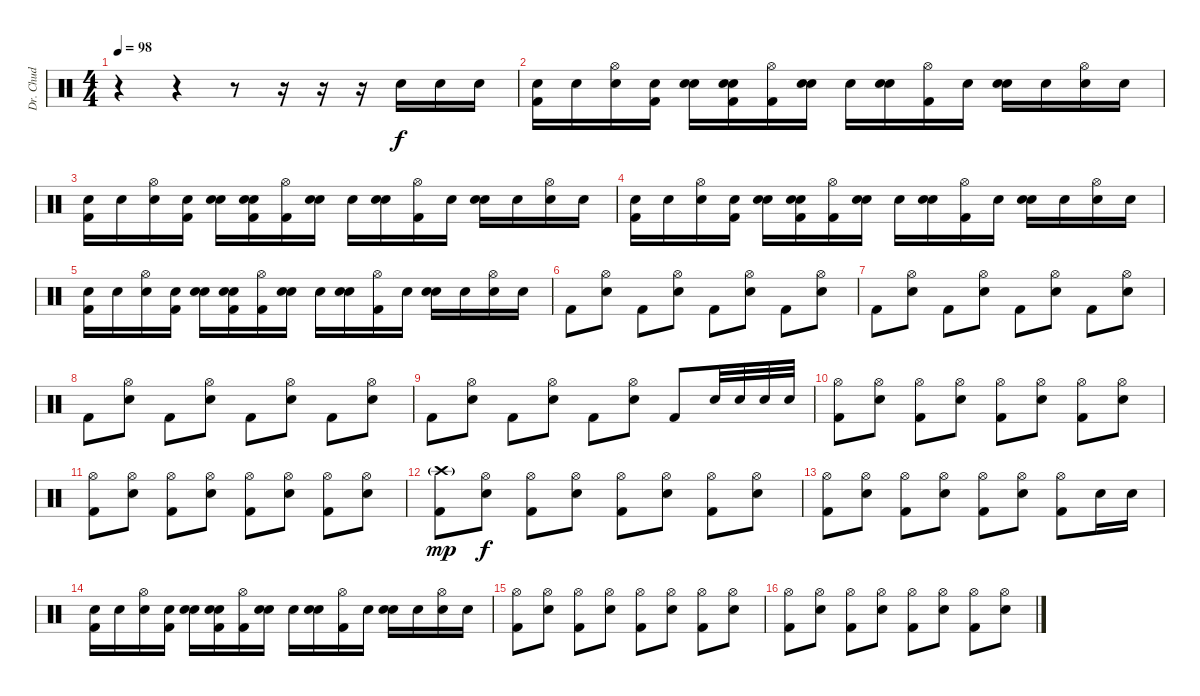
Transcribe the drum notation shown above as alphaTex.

\track ("Dr. Chud" "Dr. Chud") {instrument percussion}
\staff {score}
\articulation defaults
\ts (4 4)
\tempo 98
\clef neutral
\ks c
r.4{dy f} r.4 r.8 r.16 r.16 r.16 "Snare (hit) 2".16 "Snare (hit) 2".16 "Snare (hit) 2".16 |
("Snare (hit)" "Kick (hit) 2").16 "Snare (hit)".16 ("Hi-Hat (open)" "Snare (hit) 2").16 ("Snare (hit)" "Kick (hit) 2").16 ("Snare (hit)" "Snare (hit) 2").16 ("Snare (hit)" "Snare (hit) 2" "Kick (hit) 2").16 ("Hi-Hat (open)" "Kick (hit) 2").16 ("Snare (hit)" "Snare (hit) 2").16 "Snare (hit)".16 ("Snare (hit)" "Snare (hit) 2").16 ("Hi-Hat (open)" "Kick (hit) 2").16 "Snare (hit)".16 ("Snare (hit)" "Snare (hit) 2").16 "Snare (hit)".16 ("Hi-Hat (open)" "Snare (hit) 2").16 "Snare (hit)".16 |
("Snare (hit)" "Kick (hit) 2").16 "Snare (hit)".16 ("Hi-Hat (open)" "Snare (hit) 2").16 ("Snare (hit)" "Kick (hit) 2").16 ("Snare (hit)" "Snare (hit) 2").16 ("Snare (hit)" "Snare (hit) 2" "Kick (hit) 2").16 ("Hi-Hat (open)" "Kick (hit) 2").16 ("Snare (hit)" "Snare (hit) 2").16 "Snare (hit)".16 ("Snare (hit)" "Snare (hit) 2").16 ("Hi-Hat (open)" "Kick (hit) 2").16 "Snare (hit)".16 ("Snare (hit)" "Snare (hit) 2").16 "Snare (hit)".16 ("Hi-Hat (open)" "Snare (hit) 2").16 "Snare (hit)".16 |
("Snare (hit)" "Kick (hit) 2").16 "Snare (hit)".16 ("Hi-Hat (open)" "Snare (hit) 2").16 ("Snare (hit)" "Kick (hit) 2").16 ("Snare (hit)" "Snare (hit) 2").16 ("Snare (hit)" "Snare (hit) 2" "Kick (hit) 2").16 ("Hi-Hat (open)" "Kick (hit) 2").16 ("Snare (hit)" "Snare (hit) 2").16 "Snare (hit)".16 ("Snare (hit)" "Snare (hit) 2").16 ("Hi-Hat (open)" "Kick (hit) 2").16 "Snare (hit)".16 ("Snare (hit)" "Snare (hit) 2").16 "Snare (hit)".16 ("Hi-Hat (open)" "Snare (hit) 2").16 "Snare (hit)".16 |
("Snare (hit)" "Kick (hit) 2").16 "Snare (hit)".16 ("Hi-Hat (open)" "Snare (hit) 2").16 ("Snare (hit)" "Kick (hit) 2").16 ("Snare (hit)" "Snare (hit) 2").16 ("Snare (hit)" "Snare (hit) 2" "Kick (hit) 2").16 ("Hi-Hat (open)" "Kick (hit) 2").16 ("Snare (hit)" "Snare (hit) 2").16 "Snare (hit)".16 ("Snare (hit)" "Snare (hit) 2").16 ("Hi-Hat (open)" "Kick (hit) 2").16 "Snare (hit)".16 ("Snare (hit)" "Snare (hit) 2").16 "Snare (hit)".16 ("Hi-Hat (open)" "Snare (hit) 2").16 "Snare (hit)".16 |
"Kick (hit) 2".8 ("Hi-Hat (open)" "Snare (hit) 2").8 "Kick (hit) 2".8 ("Hi-Hat (open)" "Snare (hit) 2").8 "Kick (hit) 2".8 ("Hi-Hat (open)" "Snare (hit) 2").8 "Kick (hit) 2".8 ("Hi-Hat (open)" "Snare (hit) 2").8 |
"Kick (hit) 2".8 ("Hi-Hat (open)" "Snare (hit) 2").8 "Kick (hit) 2".8 ("Hi-Hat (open)" "Snare (hit) 2").8 "Kick (hit) 2".8 ("Hi-Hat (open)" "Snare (hit) 2").8 "Kick (hit) 2".8 ("Hi-Hat (open)" "Snare (hit) 2").8 |
"Kick (hit) 2".8 ("Hi-Hat (open)" "Snare (hit) 2").8 "Kick (hit) 2".8 ("Hi-Hat (open)" "Snare (hit) 2").8 "Kick (hit) 2".8 ("Hi-Hat (open)" "Snare (hit) 2").8 "Kick (hit) 2".8 ("Hi-Hat (open)" "Snare (hit) 2").8 |
"Kick (hit) 2".8 ("Hi-Hat (open)" "Snare (hit) 2").8 "Kick (hit) 2".8 ("Hi-Hat (open)" "Snare (hit) 2").8 "Kick (hit) 2".8 ("Hi-Hat (open)" "Snare (hit) 2").8 "Kick (hit) 2".8 "Snare (hit) 2".32 "Snare (hit) 2".32 "Snare (hit) 2".32 "Snare (hit) 2".32 |
("Hi-Hat (open)" "Kick (hit) 2").8 ("Hi-Hat (open)" "Snare (hit) 2").8 ("Hi-Hat (open)" "Kick (hit) 2").8 ("Hi-Hat (open)" "Snare (hit) 2").8 ("Hi-Hat (open)" "Kick (hit) 2").8 ("Hi-Hat (open)" "Snare (hit) 2").8 ("Hi-Hat (open)" "Kick (hit) 2").8 ("Hi-Hat (open)" "Snare (hit) 2").8 |
("Hi-Hat (open)" "Kick (hit) 2").8 ("Hi-Hat (open)" "Snare (hit) 2").8 ("Hi-Hat (open)" "Kick (hit) 2").8 ("Hi-Hat (open)" "Snare (hit) 2").8 ("Hi-Hat (open)" "Kick (hit) 2").8 ("Hi-Hat (open)" "Snare (hit) 2").8 ("Hi-Hat (open)" "Kick (hit) 2").8 ("Hi-Hat (open)" "Snare (hit) 2").8 |
("Crash high (hit)"{g} "Kick (hit) 2").8{dy mp} ("Hi-Hat (open)" "Snare (hit) 2").8{dy f} ("Hi-Hat (open)" "Kick (hit) 2").8 ("Hi-Hat (open)" "Snare (hit) 2").8 ("Hi-Hat (open)" "Kick (hit) 2").8 ("Hi-Hat (open)" "Snare (hit) 2").8 ("Hi-Hat (open)" "Kick (hit) 2").8 ("Hi-Hat (open)" "Snare (hit) 2").8 |
("Hi-Hat (open)" "Kick (hit) 2").8 ("Hi-Hat (open)" "Snare (hit) 2").8 ("Hi-Hat (open)" "Kick (hit) 2").8 ("Hi-Hat (open)" "Snare (hit) 2").8 ("Hi-Hat (open)" "Kick (hit) 2").8 ("Hi-Hat (open)" "Snare (hit) 2").8 ("Hi-Hat (open)" "Kick (hit) 2").8 "Snare (hit) 2".16 "Snare (hit) 2".16 |
("Snare (hit)" "Kick (hit) 2").16 "Snare (hit)".16 ("Hi-Hat (open)" "Snare (hit) 2").16 ("Snare (hit)" "Kick (hit) 2").16 ("Snare (hit)" "Snare (hit) 2").16 ("Snare (hit)" "Snare (hit) 2" "Kick (hit) 2").16 ("Hi-Hat (open)" "Kick (hit) 2").16 ("Snare (hit)" "Snare (hit) 2").16 "Snare (hit)".16 ("Snare (hit)" "Snare (hit) 2").16 ("Hi-Hat (open)" "Kick (hit) 2").16 "Snare (hit)".16 ("Snare (hit)" "Snare (hit) 2").16 "Snare (hit)".16 ("Hi-Hat (open)" "Snare (hit) 2").16 "Snare (hit)".16 |
("Hi-Hat (open)" "Kick (hit) 2").8 ("Hi-Hat (open)" "Snare (hit) 2").8 ("Hi-Hat (open)" "Kick (hit) 2").8 ("Hi-Hat (open)" "Snare (hit) 2").8 ("Hi-Hat (open)" "Kick (hit) 2").8 ("Hi-Hat (open)" "Snare (hit) 2").8 ("Hi-Hat (open)" "Kick (hit) 2").8 ("Hi-Hat (open)" "Snare (hit) 2").8 |
("Hi-Hat (open)" "Kick (hit) 2").8 ("Hi-Hat (open)" "Snare (hit) 2").8 ("Hi-Hat (open)" "Kick (hit) 2").8 ("Hi-Hat (open)" "Snare (hit) 2").8 ("Hi-Hat (open)" "Kick (hit) 2").8 ("Hi-Hat (open)" "Snare (hit) 2").8 ("Hi-Hat (open)" "Kick (hit) 2").8 ("Hi-Hat (open)" "Snare (hit) 2").8
